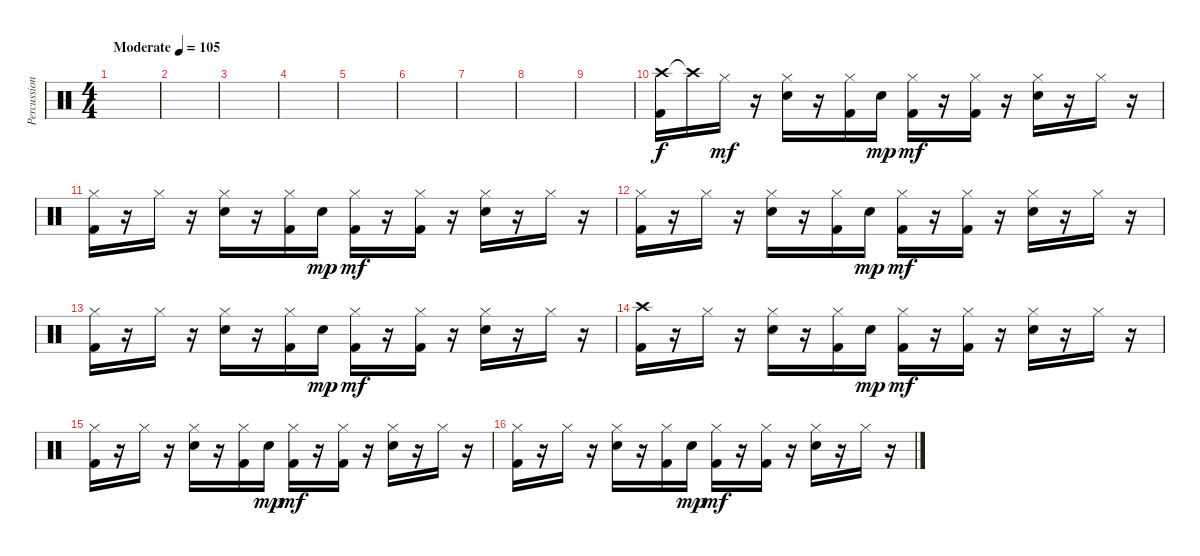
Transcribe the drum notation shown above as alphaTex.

\track ("Percussion" "Percussion") {instrument percussion}
\staff {score}
\articulation defaults
\ts (4 4)
\tempo (105 "Moderate")
\clef neutral
\ks c
|
|
|
|
|
|
|
|
|
("Crash high (hit)" "Kick (hit) 2").16{volume 16} "Crash high (hit)"{t}.16{dy f} "Hi-Hat (closed)".16{dy mf} r.16 ("Hi-Hat (closed)" "Electric Snare (hit)").16 r.16 ("Hi-Hat (closed)" "Kick (hit) 2").16 "Electric Snare (hit)".16{dy mp} ("Hi-Hat (closed)" "Kick (hit) 2").16{dy mf} r.16 ("Hi-Hat (closed)" "Kick (hit) 2").16 r.16 ("Hi-Hat (closed)" "Electric Snare (hit)").16 r.16 "Hi-Hat (closed)".16 r.16 |
("Hi-Hat (closed)" "Kick (hit) 2").16 r.16 "Hi-Hat (closed)".16 r.16 ("Hi-Hat (closed)" "Electric Snare (hit)").16 r.16 ("Hi-Hat (closed)" "Kick (hit) 2").16 "Electric Snare (hit)".16{dy mp} ("Hi-Hat (closed)" "Kick (hit) 2").16{dy mf} r.16 ("Hi-Hat (closed)" "Kick (hit) 2").16 r.16 ("Hi-Hat (closed)" "Electric Snare (hit)").16 r.16 "Hi-Hat (closed)".16 r.16 |
("Hi-Hat (closed)" "Kick (hit) 2").16 r.16 "Hi-Hat (closed)".16 r.16 ("Hi-Hat (closed)" "Electric Snare (hit)").16 r.16 ("Hi-Hat (closed)" "Kick (hit) 2").16 "Electric Snare (hit)".16{dy mp} ("Hi-Hat (closed)" "Kick (hit) 2").16{dy mf} r.16 ("Hi-Hat (closed)" "Kick (hit) 2").16 r.16 ("Hi-Hat (closed)" "Electric Snare (hit)").16 r.16 "Hi-Hat (closed)".16 r.16 |
("Hi-Hat (closed)" "Kick (hit) 2").16 r.16 "Hi-Hat (closed)".16 r.16 ("Hi-Hat (closed)" "Electric Snare (hit)").16 r.16 ("Hi-Hat (closed)" "Kick (hit) 2").16 "Electric Snare (hit)".16{dy mp} ("Hi-Hat (closed)" "Kick (hit) 2").16{dy mf} r.16 ("Hi-Hat (closed)" "Kick (hit) 2").16 r.16 ("Hi-Hat (closed)" "Electric Snare (hit)").16 r.16 "Hi-Hat (closed)".16 r.16 |
("Crash high (hit)" "Kick (hit) 2").16 r.16 "Hi-Hat (closed)".16 r.16 ("Hi-Hat (closed)" "Electric Snare (hit)").16 r.16 ("Hi-Hat (closed)" "Kick (hit) 2").16 "Electric Snare (hit)".16{dy mp} ("Hi-Hat (closed)" "Kick (hit) 2").16{dy mf} r.16 ("Hi-Hat (closed)" "Kick (hit) 2").16 r.16 ("Hi-Hat (closed)" "Electric Snare (hit)").16 r.16 "Hi-Hat (closed)".16 r.16 |
("Hi-Hat (closed)" "Kick (hit) 2").16 r.16 "Hi-Hat (closed)".16 r.16 ("Hi-Hat (closed)" "Electric Snare (hit)").16 r.16 ("Hi-Hat (closed)" "Kick (hit) 2").16 "Electric Snare (hit)".16{dy mp} ("Hi-Hat (closed)" "Kick (hit) 2").16{dy mf} r.16 ("Hi-Hat (closed)" "Kick (hit) 2").16 r.16 ("Hi-Hat (closed)" "Electric Snare (hit)").16 r.16 "Hi-Hat (closed)".16 r.16 |
("Hi-Hat (closed)" "Kick (hit) 2").16 r.16 "Hi-Hat (closed)".16 r.16 ("Hi-Hat (closed)" "Electric Snare (hit)").16 r.16 ("Hi-Hat (closed)" "Kick (hit) 2").16 "Electric Snare (hit)".16{dy mp} ("Hi-Hat (closed)" "Kick (hit) 2").16{dy mf} r.16 ("Hi-Hat (closed)" "Kick (hit) 2").16 r.16 ("Hi-Hat (closed)" "Electric Snare (hit)").16 r.16 "Hi-Hat (closed)".16 r.16
